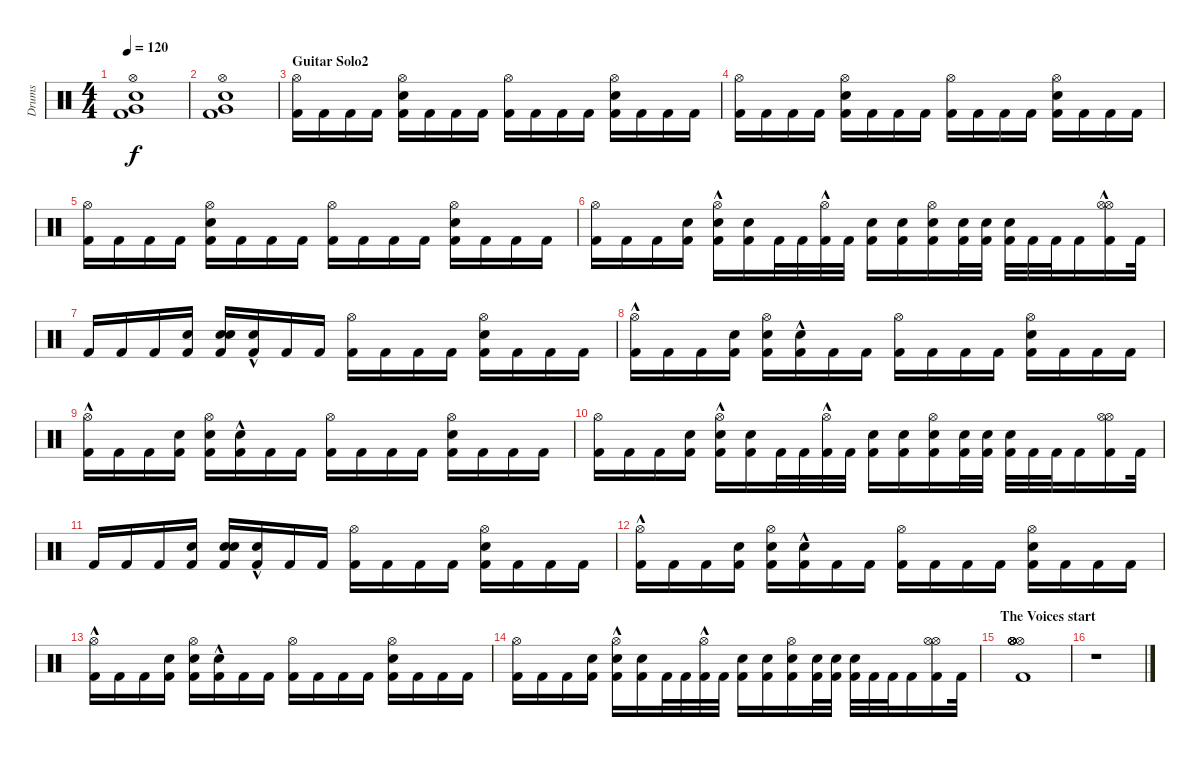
\track ("Drums" "Drums") {instrument percussion}
\staff {score}
\articulation defaults
\ts (4 4)
\tempo 120
\clef neutral
\ks c
("Hi-Hat (open)" "Electric Snare (hit)" "Very Low Tom (hit)" "Kick (hit) 2").1{dy f} |
("Hi-Hat (open)" "Electric Snare (hit)" "Very Low Tom (hit)" "Kick (hit) 2").1 |
\section ("" "Guitar Solo2")
("Hi-Hat (open)" "Kick (hit) 2").16 "Kick (hit) 2".16 "Kick (hit) 2".16 "Kick (hit) 2".16 ("Electric Snare (hit)" "Hi-Hat (open)" "Kick (hit) 2").16 "Kick (hit) 2".16 "Kick (hit) 2".16 "Kick (hit) 2".16 ("Hi-Hat (open)" "Kick (hit) 2").16 "Kick (hit) 2".16 "Kick (hit) 2".16 "Kick (hit) 2".16 ("Electric Snare (hit)" "Hi-Hat (open)" "Kick (hit) 2").16 "Kick (hit) 2".16 "Kick (hit) 2".16 "Kick (hit) 2".16 |
("Hi-Hat (open)" "Kick (hit) 2").16 "Kick (hit) 2".16 "Kick (hit) 2".16 "Kick (hit) 2".16 ("Electric Snare (hit)" "Hi-Hat (open)" "Kick (hit) 2").16 "Kick (hit) 2".16 "Kick (hit) 2".16 "Kick (hit) 2".16 ("Hi-Hat (open)" "Kick (hit) 2").16 "Kick (hit) 2".16 "Kick (hit) 2".16 "Kick (hit) 2".16 ("Electric Snare (hit)" "Hi-Hat (open)" "Kick (hit) 2").16 "Kick (hit) 2".16 "Kick (hit) 2".16 "Kick (hit) 2".16 |
("Hi-Hat (open)" "Kick (hit) 2").16 "Kick (hit) 2".16 "Kick (hit) 2".16 "Kick (hit) 2".16 ("Electric Snare (hit)" "Hi-Hat (open)" "Kick (hit) 2").16 "Kick (hit) 2".16 "Kick (hit) 2".16 "Kick (hit) 2".16 ("Hi-Hat (open)" "Kick (hit) 2").16 "Kick (hit) 2".16 "Kick (hit) 2".16 "Kick (hit) 2".16 ("Electric Snare (hit)" "Hi-Hat (open)" "Kick (hit) 2").16 "Kick (hit) 2".16 "Kick (hit) 2".16 "Kick (hit) 2".16 |
("Hi-Hat (open)" "Kick (hit) 2").16 "Kick (hit) 2".16 "Kick (hit) 2".16 ("Electric Snare (hit)" "Kick (hit) 2").16 ("Electric Snare (hit)" "Hi-Hat (open)"{hac} "Kick (hit) 2").16 ("Electric Snare (hit)" "Kick (hit) 2").16 "Kick (hit) 2".32 "Kick (hit) 2".32 ("Hi-Hat (open)"{hac} "Kick (hit) 2").32 "Kick (hit) 2".32 ("Electric Snare (hit)" "Kick (hit) 2").16 ("Electric Snare (hit)" "Kick (hit) 2").16 ("Electric Snare (hit)" "Hi-Hat (open)" "Kick (hit) 2").16 ("Electric Snare (hit)" "Kick (hit) 2").32 ("Electric Snare (hit)" "Kick (hit) 2").32 ("Electric Snare (hit)" "Kick (hit) 2").32 "Kick (hit) 2".32 "Kick (hit) 2".32 "Kick (hit) 2".16 ("Hi-Hat (open)"{hac} "Hi-Hat (open)"{hac} "Kick (hit) 2").16 "Kick (hit) 2".32 |
"Kick (hit) 2".16 "Kick (hit) 2".16 "Kick (hit) 2".16 ("Electric Snare (hit)" "Kick (hit) 2").16 ("Electric Snare (hit)" "Electric Snare (hit)" "Kick (hit) 2").16 ("Electric Snare (hit)"{hac} "Kick (hit) 2").16 "Kick (hit) 2".16 "Kick (hit) 2".16 ("Hi-Hat (open)" "Kick (hit) 2").16 "Kick (hit) 2".16 "Kick (hit) 2".16 "Kick (hit) 2".16 ("Electric Snare (hit)" "Hi-Hat (open)" "Kick (hit) 2").16 "Kick (hit) 2".16 "Kick (hit) 2".16 "Kick (hit) 2".16 |
("Hi-Hat (open)"{hac} "Kick (hit) 2").16 "Kick (hit) 2".16 "Kick (hit) 2".16 ("Electric Snare (hit)" "Kick (hit) 2").16 ("Electric Snare (hit)" "Hi-Hat (open)" "Kick (hit) 2").16 ("Electric Snare (hit)"{hac} "Kick (hit) 2").16 "Kick (hit) 2".16 "Kick (hit) 2".16 ("Hi-Hat (open)" "Kick (hit) 2").16 "Kick (hit) 2".16 "Kick (hit) 2".16 "Kick (hit) 2".16 ("Electric Snare (hit)" "Hi-Hat (open)" "Kick (hit) 2").16 "Kick (hit) 2".16 "Kick (hit) 2".16 "Kick (hit) 2".16 |
("Hi-Hat (open)"{hac} "Kick (hit) 2").16 "Kick (hit) 2".16 "Kick (hit) 2".16 ("Electric Snare (hit)" "Kick (hit) 2").16 ("Electric Snare (hit)" "Hi-Hat (open)" "Kick (hit) 2").16 ("Electric Snare (hit)"{hac} "Kick (hit) 2").16 "Kick (hit) 2".16 "Kick (hit) 2".16 ("Hi-Hat (open)" "Kick (hit) 2").16 "Kick (hit) 2".16 "Kick (hit) 2".16 "Kick (hit) 2".16 ("Electric Snare (hit)" "Hi-Hat (open)" "Kick (hit) 2").16 "Kick (hit) 2".16 "Kick (hit) 2".16 "Kick (hit) 2".16 |
("Hi-Hat (open)" "Kick (hit) 2").16 "Kick (hit) 2".16 "Kick (hit) 2".16 ("Electric Snare (hit)" "Kick (hit) 2").16 ("Electric Snare (hit)" "Hi-Hat (open)"{hac} "Kick (hit) 2").16 ("Electric Snare (hit)" "Kick (hit) 2").16 "Kick (hit) 2".32 "Kick (hit) 2".32 ("Hi-Hat (open)"{hac} "Kick (hit) 2").32 "Kick (hit) 2".32 ("Electric Snare (hit)" "Kick (hit) 2").16 ("Electric Snare (hit)" "Kick (hit) 2").16 ("Electric Snare (hit)" "Hi-Hat (open)" "Kick (hit) 2").16 ("Electric Snare (hit)" "Kick (hit) 2").32 ("Electric Snare (hit)" "Kick (hit) 2").32 ("Electric Snare (hit)" "Kick (hit) 2").32 "Kick (hit) 2".32 "Kick (hit) 2".32 "Kick (hit) 2".16 ("Hi-Hat (open)" "Hi-Hat (open)" "Kick (hit) 2").16 "Kick (hit) 2".32 |
"Kick (hit) 2".16 "Kick (hit) 2".16 "Kick (hit) 2".16 ("Electric Snare (hit)" "Kick (hit) 2").16 ("Electric Snare (hit)" "Electric Snare (hit)" "Kick (hit) 2").16 ("Electric Snare (hit)"{hac} "Kick (hit) 2").16 "Kick (hit) 2".16 "Kick (hit) 2".16 ("Hi-Hat (open)" "Kick (hit) 2").16 "Kick (hit) 2".16 "Kick (hit) 2".16 "Kick (hit) 2".16 ("Electric Snare (hit)" "Hi-Hat (open)" "Kick (hit) 2").16 "Kick (hit) 2".16 "Kick (hit) 2".16 "Kick (hit) 2".16 |
("Hi-Hat (open)"{hac} "Kick (hit) 2").16 "Kick (hit) 2".16 "Kick (hit) 2".16 ("Electric Snare (hit)" "Kick (hit) 2").16 ("Electric Snare (hit)" "Hi-Hat (open)" "Kick (hit) 2").16 ("Electric Snare (hit)"{hac} "Kick (hit) 2").16 "Kick (hit) 2".16 "Kick (hit) 2".16 ("Hi-Hat (open)" "Kick (hit) 2").16 "Kick (hit) 2".16 "Kick (hit) 2".16 "Kick (hit) 2".16 ("Electric Snare (hit)" "Hi-Hat (open)" "Kick (hit) 2").16 "Kick (hit) 2".16 "Kick (hit) 2".16 "Kick (hit) 2".16 |
("Hi-Hat (open)"{hac} "Kick (hit) 2").16 "Kick (hit) 2".16 "Kick (hit) 2".16 ("Electric Snare (hit)" "Kick (hit) 2").16 ("Electric Snare (hit)" "Hi-Hat (open)" "Kick (hit) 2").16 ("Electric Snare (hit)"{hac} "Kick (hit) 2").16 "Kick (hit) 2".16 "Kick (hit) 2".16 ("Hi-Hat (open)" "Kick (hit) 2").16 "Kick (hit) 2".16 "Kick (hit) 2".16 "Kick (hit) 2".16 ("Electric Snare (hit)" "Hi-Hat (open)" "Kick (hit) 2").16 "Kick (hit) 2".16 "Kick (hit) 2".16 "Kick (hit) 2".16 |
("Hi-Hat (open)" "Kick (hit) 2").16 "Kick (hit) 2".16 "Kick (hit) 2".16 ("Electric Snare (hit)" "Kick (hit) 2").16 ("Electric Snare (hit)" "Hi-Hat (open)"{hac} "Kick (hit) 2").16 ("Electric Snare (hit)" "Kick (hit) 2").16 "Kick (hit) 2".32 "Kick (hit) 2".32 ("Hi-Hat (open)"{hac} "Kick (hit) 2").32 "Kick (hit) 2".32 ("Electric Snare (hit)" "Kick (hit) 2").16 ("Electric Snare (hit)" "Kick (hit) 2").16 ("Electric Snare (hit)" "Hi-Hat (open)" "Kick (hit) 2").16 ("Electric Snare (hit)" "Kick (hit) 2").32 ("Electric Snare (hit)" "Kick (hit) 2").32 ("Electric Snare (hit)" "Kick (hit) 2").32 "Kick (hit) 2".32 "Kick (hit) 2".32 "Kick (hit) 2".16 ("Hi-Hat (open)" "Hi-Hat (open)" "Kick (hit) 2").16 "Kick (hit) 2".32 |
\section ("" "The Voices start")
("Hi-Hat (open)" "Hi-Hat (open)" "Hi-Hat (open)" "Hi-Hat (open)" "Hi-Hat (open)" "Kick (hit) 2").1 |
r.1
